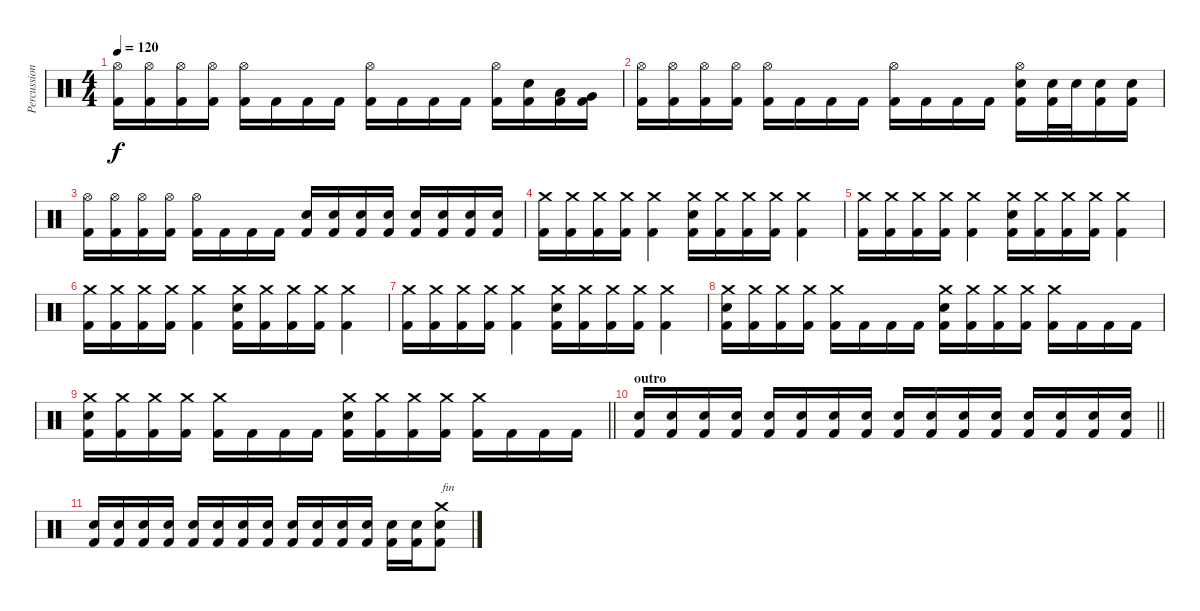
\track ("Percussion" "Percussion") {instrument percussion}
\staff {score}
\articulation defaults
\ts (4 4)
\tempo 120
\clef neutral
\ks c
("Hi-Hat (open)" "Kick (hit) 2").16{dy f} ("Hi-Hat (open)" "Kick (hit) 2").16 ("Hi-Hat (open)" "Kick (hit) 2").16 ("Hi-Hat (open)" "Kick (hit) 2").16 ("Hi-Hat (open)" "Kick (hit) 2").16 "Kick (hit) 2".16 "Kick (hit) 2".16 "Kick (hit) 2".16 ("Hi-Hat (open)" "Kick (hit) 2").16 "Kick (hit) 2".16 "Kick (hit) 2".16 "Kick (hit) 2".16 ("Hi-Hat (open)" "Kick (hit) 2").16 ("Snare (hit) 2" "Kick (hit) 2").16 ("Low Tom (hit)" "Kick (hit) 2").16 ("Very Low Tom (hit)" "Kick (hit) 2").16 |
("Hi-Hat (open)" "Kick (hit) 2").16 ("Hi-Hat (open)" "Kick (hit) 2").16 ("Hi-Hat (open)" "Kick (hit) 2").16 ("Hi-Hat (open)" "Kick (hit) 2").16 ("Hi-Hat (open)" "Kick (hit) 2").16 "Kick (hit) 2".16 "Kick (hit) 2".16 "Kick (hit) 2".16 ("Hi-Hat (open)" "Kick (hit) 2").16 "Kick (hit) 2".16 "Kick (hit) 2".16 "Kick (hit) 2".16 ("Hi-Hat (open)" "Snare (hit) 2" "Kick (hit) 2").16 ("Snare (hit) 2" "Kick (hit) 2").32 "Snare (hit) 2".32 ("Snare (hit) 2" "Kick (hit) 2").16 ("Snare (hit) 2" "Kick (hit) 2").16 |
("Hi-Hat (open)" "Kick (hit) 2").16 ("Hi-Hat (open)" "Kick (hit) 2").16 ("Hi-Hat (open)" "Kick (hit) 2").16 ("Hi-Hat (open)" "Kick (hit) 2").16 ("Hi-Hat (open)" "Kick (hit) 2").16 "Kick (hit) 2".16 "Kick (hit) 2".16 "Kick (hit) 2".16 ("Snare (hit) 2" "Kick (hit) 2").16 ("Snare (hit) 2" "Kick (hit) 2").16 ("Snare (hit) 2" "Kick (hit) 2").16 ("Snare (hit) 2" "Kick (hit) 2").16 ("Snare (hit) 2" "Kick (hit) 2").16 ("Snare (hit) 2" "Kick (hit) 2").16 ("Snare (hit) 2" "Kick (hit) 2").16 ("Snare (hit) 2" "Kick (hit) 2").16 |
("Crash medium (hit)" "Kick (hit) 2").16 ("Crash medium (hit)" "Kick (hit) 2").16 ("Crash medium (hit)" "Kick (hit) 2").16 ("Crash medium (hit)" "Kick (hit) 2").16 ("Crash medium (hit)" "Kick (hit) 2").4 ("Crash medium (hit)" "Snare (hit) 2" "Kick (hit) 2").16 ("Crash medium (hit)" "Kick (hit) 2").16 ("Crash medium (hit)" "Kick (hit) 2").16 ("Crash medium (hit)" "Kick (hit) 2").16 ("Crash medium (hit)" "Kick (hit) 2").4 |
("Crash medium (hit)" "Kick (hit) 2").16 ("Crash medium (hit)" "Kick (hit) 2").16 ("Crash medium (hit)" "Kick (hit) 2").16 ("Crash medium (hit)" "Kick (hit) 2").16 ("Crash medium (hit)" "Kick (hit) 2").4 ("Crash medium (hit)" "Snare (hit) 2" "Kick (hit) 2").16 ("Crash medium (hit)" "Kick (hit) 2").16 ("Crash medium (hit)" "Kick (hit) 2").16 ("Crash medium (hit)" "Kick (hit) 2").16 ("Crash medium (hit)" "Kick (hit) 2").4 |
("Crash medium (hit)" "Kick (hit) 2").16 ("Crash medium (hit)" "Kick (hit) 2").16 ("Crash medium (hit)" "Kick (hit) 2").16 ("Crash medium (hit)" "Kick (hit) 2").16 ("Crash medium (hit)" "Kick (hit) 2").4 ("Crash medium (hit)" "Snare (hit) 2" "Kick (hit) 2").16 ("Crash medium (hit)" "Kick (hit) 2").16 ("Crash medium (hit)" "Kick (hit) 2").16 ("Crash medium (hit)" "Kick (hit) 2").16 ("Crash medium (hit)" "Kick (hit) 2").4 |
("Crash medium (hit)" "Kick (hit) 2").16 ("Crash medium (hit)" "Kick (hit) 2").16 ("Crash medium (hit)" "Kick (hit) 2").16 ("Crash medium (hit)" "Kick (hit) 2").16 ("Crash medium (hit)" "Kick (hit) 2").4 ("Crash medium (hit)" "Snare (hit) 2" "Kick (hit) 2").16 ("Crash medium (hit)" "Kick (hit) 2").16 ("Crash medium (hit)" "Kick (hit) 2").16 ("Crash medium (hit)" "Kick (hit) 2").16 ("Crash medium (hit)" "Kick (hit) 2").4 |
("Crash medium (hit)" "Snare (hit) 2" "Kick (hit) 2").16 ("Crash medium (hit)" "Kick (hit) 2").16 ("Crash medium (hit)" "Kick (hit) 2").16 ("Crash medium (hit)" "Kick (hit) 2").16 ("Crash medium (hit)" "Kick (hit) 2").16 "Kick (hit) 2".16 "Kick (hit) 2".16 "Kick (hit) 2".16 ("Crash medium (hit)" "Snare (hit) 2" "Kick (hit) 2").16 ("Crash medium (hit)" "Kick (hit) 2").16 ("Crash medium (hit)" "Kick (hit) 2").16 ("Crash medium (hit)" "Kick (hit) 2").16 ("Crash medium (hit)" "Kick (hit) 2").16 "Kick (hit) 2".16 "Kick (hit) 2".16 "Kick (hit) 2".16 |
\barLineRight lightlight
("Crash medium (hit)" "Snare (hit) 2" "Kick (hit) 2").16 ("Crash medium (hit)" "Kick (hit) 2").16 ("Crash medium (hit)" "Kick (hit) 2").16 ("Crash medium (hit)" "Kick (hit) 2").16 ("Crash medium (hit)" "Kick (hit) 2").16 "Kick (hit) 2".16 "Kick (hit) 2".16 "Kick (hit) 2".16 ("Crash medium (hit)" "Snare (hit) 2" "Kick (hit) 2").16 ("Crash medium (hit)" "Kick (hit) 2").16 ("Crash medium (hit)" "Kick (hit) 2").16 ("Crash medium (hit)" "Kick (hit) 2").16 ("Crash medium (hit)" "Kick (hit) 2").16 "Kick (hit) 2".16 "Kick (hit) 2".16 "Kick (hit) 2".16 |
\section ("" "outro")
\barLineRight lightlight
("Snare (hit) 2" "Kick (hit) 2").16 ("Snare (hit) 2" "Kick (hit) 2").16 ("Snare (hit) 2" "Kick (hit) 2").16 ("Snare (hit) 2" "Kick (hit) 2").16 ("Snare (hit) 2" "Kick (hit) 2").16 ("Snare (hit) 2" "Kick (hit) 2").16 ("Snare (hit) 2" "Kick (hit) 2").16 ("Snare (hit) 2" "Kick (hit) 2").16 ("Snare (hit) 2" "Kick (hit) 2").16 ("Snare (hit) 2" "Kick (hit) 2").16 ("Snare (hit) 2" "Kick (hit) 2").16 ("Snare (hit) 2" "Kick (hit) 2").16 ("Snare (hit) 2" "Kick (hit) 2").16 ("Snare (hit) 2" "Kick (hit) 2").16 ("Snare (hit) 2" "Kick (hit) 2").16 ("Snare (hit) 2" "Kick (hit) 2").16 |
\section ("" "")
("Snare (hit) 2" "Kick (hit) 2").16 ("Snare (hit) 2" "Kick (hit) 2").16 ("Snare (hit) 2" "Kick (hit) 2").16 ("Snare (hit) 2" "Kick (hit) 2").16 ("Snare (hit) 2" "Kick (hit) 2").16 ("Snare (hit) 2" "Kick (hit) 2").16 ("Snare (hit) 2" "Kick (hit) 2").16 ("Snare (hit) 2" "Kick (hit) 2").16 ("Snare (hit) 2" "Kick (hit) 2").16 ("Snare (hit) 2" "Kick (hit) 2").16 ("Snare (hit) 2" "Kick (hit) 2").16 ("Snare (hit) 2" "Kick (hit) 2").16 ("Snare (hit) 2" "Kick (hit) 2").16 ("Snare (hit) 2" "Kick (hit) 2").16 ("Crash medium (hit)" "Snare (hit) 2" "Kick (hit) 2").8{txt "fin"}
